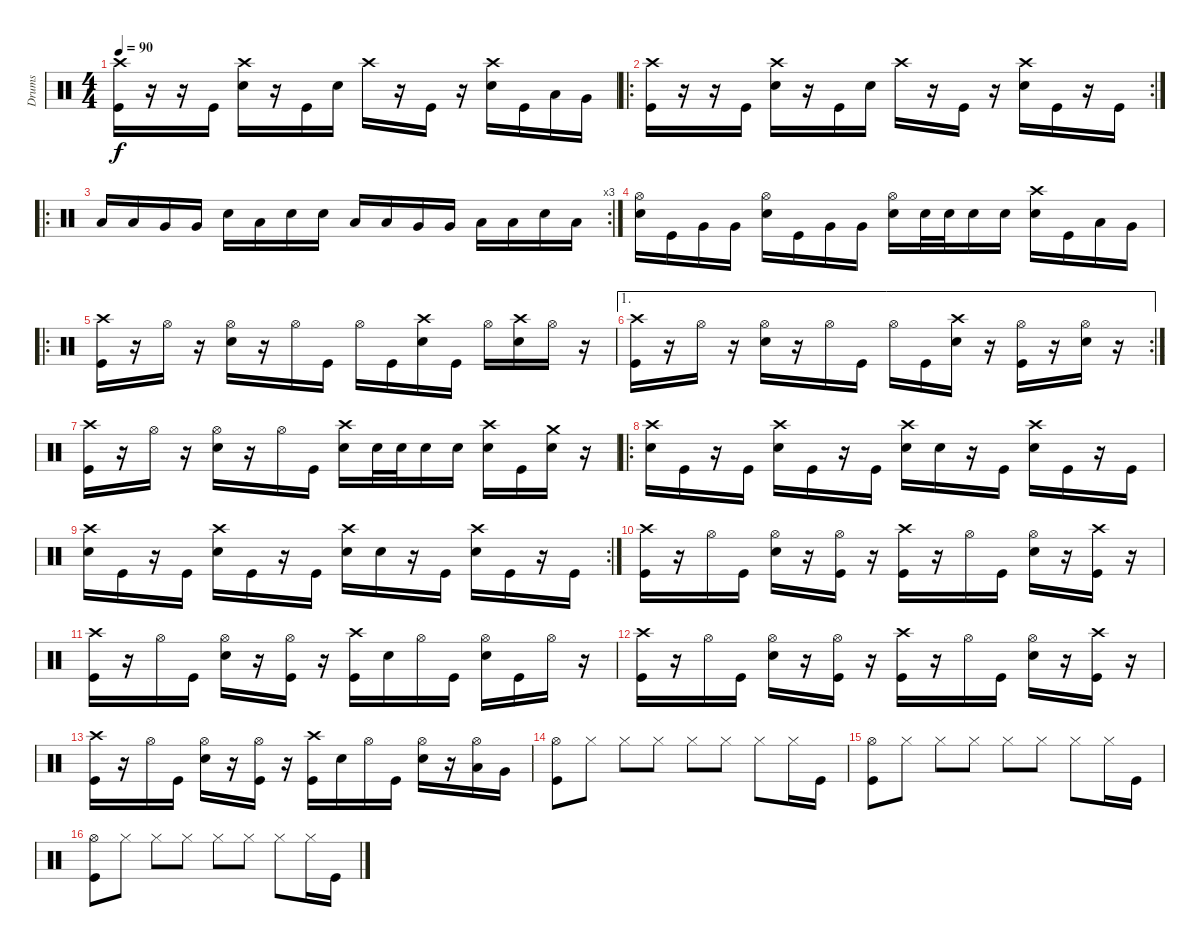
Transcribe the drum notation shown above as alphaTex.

\track ("Drums" "Drums") {instrument percussion}
\staff {score}
\articulation defaults
\ts (4 4)
\tempo 90
\clef neutral
\ks c
("Crash high (hit)" "Kick (hit)").16{dy f} r.16 r.16 "Kick (hit)".16 ("Crash high (hit)" "Snare (hit) 2").16 r.16 "Kick (hit)".16 "Snare (hit) 2".16 "Crash high (hit)".16 r.16 "Kick (hit)".16 r.16 ("Crash high (hit)" "Snare (hit) 2").16 "Kick (hit)".16 "Low Tom (hit)".16 "Very Low Tom (hit)".16 |
\ro
\rc 2
("Crash high (hit)" "Kick (hit)").16 r.16 r.16 "Kick (hit)".16 ("Crash high (hit)" "Snare (hit) 2").16 r.16 "Kick (hit)".16 "Snare (hit) 2".16 "Crash high (hit)".16 r.16 "Kick (hit)".16 r.16 ("Crash high (hit)" "Snare (hit) 2").16 "Kick (hit)".16 r.16 "Kick (hit)".16 |
\ro
\rc 3 "Low Tom (hit)".16 "Low Tom (hit)".16 "Very Low Tom (hit)".16 "Very Low Tom (hit)".16 "Snare (hit) 2".16 "Low Tom (hit)".16 "Snare (hit) 2".16 "Snare (hit) 2".16 "Low Tom (hit)".16 "Low Tom (hit)".16 "Very Low Tom (hit)".16 "Very Low Tom (hit)".16 "Low Tom (hit)".16 "Low Tom (hit)".16 "Snare (hit) 2".16 "Low Tom (hit)".16
|
("Hi-Hat (open)" "Snare (hit) 2").16 "Kick (hit)".16 "Very Low Tom (hit)".16 "Very Low Tom (hit)".16 ("Hi-Hat (open)" "Snare (hit) 2").16 "Kick (hit)".16 "Very Low Tom (hit)".16 "Very Low Tom (hit)".16 ("Hi-Hat (open)" "Snare (hit) 2").16 "Snare (hit) 2".32 "Snare (hit) 2".32 "Snare (hit) 2".16 "Snare (hit) 2".16 ("Crash high (hit)" "Snare (hit) 2").16 "Kick (hit)".16 "Low Tom (hit)".16 "Very Low Tom (hit)".16 |
\ro
("Crash high (hit)" "Kick (hit)").16 r.16 "Hi-Hat (open)".16 r.16 ("Hi-Hat (open)" "Snare (hit) 2").16 r.16 "Hi-Hat (open)".16 "Kick (hit)".16 "Hi-Hat (open)".16 "Kick (hit)".16 ("Crash high (hit)" "Snare (hit) 2").16 "Kick (hit)".16 "Hi-Hat (open)".16 ("Crash high (hit)" "Snare (hit) 2").16 "Hi-Hat (open)".16 r.16 |
\ae 1
\rc 2
("Crash high (hit)" "Kick (hit)").16 r.16 "Hi-Hat (open)".16 r.16 ("Hi-Hat (open)" "Snare (hit) 2").16 r.16 "Hi-Hat (open)".16 "Kick (hit)".16 "Hi-Hat (open)".16 "Kick (hit)".16 ("Crash high (hit)" "Snare (hit) 2").16 r.16 ("Hi-Hat (open)" "Kick (hit)").16 r.16 ("Hi-Hat (open)" "Snare (hit) 2").16 r.16 |
("Crash high (hit)" "Kick (hit)").16 r.16 "Hi-Hat (open)".16 r.16 ("Hi-Hat (open)" "Snare (hit) 2").16 r.16 "Hi-Hat (open)".16 "Kick (hit)".16 ("Crash high (hit)" "Snare (hit) 2").16 "Snare (hit) 2".32 "Snare (hit) 2".32 "Snare (hit) 2".16 "Snare (hit) 2".16 ("Crash high (hit)" "Snare (hit) 2").16 "Kick (hit)".16 ("Crash medium (hit)" "Snare (hit) 2").16 r.16 |
\ro
("Crash high (hit)" "Snare (hit) 2").16 "Kick (hit)".16 r.16 "Kick (hit)".16 ("Crash high (hit)" "Snare (hit) 2").16 "Kick (hit)".16 r.16 "Kick (hit)".16 ("Crash high (hit)" "Snare (hit) 2").16 "Snare (hit) 2".16 r.16 "Kick (hit)".16 ("Crash high (hit)" "Snare (hit) 2").16 "Kick (hit)".16 r.16 "Kick (hit)".16 |
\rc 2
("Crash high (hit)" "Snare (hit) 2").16 "Kick (hit)".16 r.16 "Kick (hit)".16 ("Crash high (hit)" "Snare (hit) 2").16 "Kick (hit)".16 r.16 "Kick (hit)".16 ("Crash high (hit)" "Snare (hit) 2").16 "Snare (hit) 2".16 r.16 "Kick (hit)".16 ("Crash high (hit)" "Snare (hit) 2").16 "Kick (hit)".16 r.16 "Kick (hit)".16 |
("Crash high (hit)" "Kick (hit)").16 r.16 "Hi-Hat (open)".16 "Kick (hit)".16 ("Hi-Hat (open)" "Snare (hit) 2").16 r.16 ("Hi-Hat (open)" "Kick (hit)").16 r.16 ("Crash high (hit)" "Kick (hit)").16 r.16 "Hi-Hat (open)".16 "Kick (hit)".16 ("Hi-Hat (open)" "Snare (hit) 2").16 r.16 ("Crash high (hit)" "Kick (hit)").16 r.16 |
("Crash high (hit)" "Kick (hit)").16 r.16 "Hi-Hat (open)".16 "Kick (hit)".16 ("Hi-Hat (open)" "Snare (hit) 2").16 r.16 ("Hi-Hat (open)" "Kick (hit)").16 r.16 ("Crash high (hit)" "Kick (hit)").16 "Snare (hit) 2".16 "Hi-Hat (open)".16 "Kick (hit)".16 ("Hi-Hat (open)" "Snare (hit) 2").16 "Kick (hit)".16 "Hi-Hat (open)".16 r.16 |
("Crash high (hit)" "Kick (hit)").16 r.16 "Hi-Hat (open)".16 "Kick (hit)".16 ("Hi-Hat (open)" "Snare (hit) 2").16 r.16 ("Hi-Hat (open)" "Kick (hit)").16 r.16 ("Crash high (hit)" "Kick (hit)").16 r.16 "Hi-Hat (open)".16 "Kick (hit)".16 ("Hi-Hat (open)" "Snare (hit) 2").16 r.16 ("Crash high (hit)" "Kick (hit)").16 r.16 |
("Crash high (hit)" "Kick (hit)").16 r.16 "Hi-Hat (open)".16 "Kick (hit)".16 ("Hi-Hat (open)" "Snare (hit) 2").16 r.16 ("Hi-Hat (open)" "Kick (hit)").16 r.16 ("Crash high (hit)" "Kick (hit)").16 "Snare (hit) 2".16 "Hi-Hat (open)".16 "Kick (hit)".16 ("Hi-Hat (open)" "Snare (hit) 2").16 r.16 ("Hi-Hat (open)" "Low Tom (hit)").16 "Very Low Tom (hit)".16 |
("Hi-Hat (open)" "Kick (hit)").8 "Hi-Hat (closed)".8 "Hi-Hat (closed)".8 "Hi-Hat (closed)".8 "Hi-Hat (closed)".8 "Hi-Hat (closed)".8 "Hi-Hat (closed)".8 "Hi-Hat (closed)".16 "Kick (hit)".16 |
("Hi-Hat (open)" "Kick (hit)").8 "Hi-Hat (closed)".8 "Hi-Hat (closed)".8 "Hi-Hat (closed)".8 "Hi-Hat (closed)".8 "Hi-Hat (closed)".8 "Hi-Hat (closed)".8 "Hi-Hat (closed)".16 "Kick (hit)".16 |
("Hi-Hat (open)" "Kick (hit)").8 "Hi-Hat (closed)".8 "Hi-Hat (closed)".8 "Hi-Hat (closed)".8 "Hi-Hat (closed)".8 "Hi-Hat (closed)".8 "Hi-Hat (closed)".8 "Hi-Hat (closed)".16 "Kick (hit)".16
